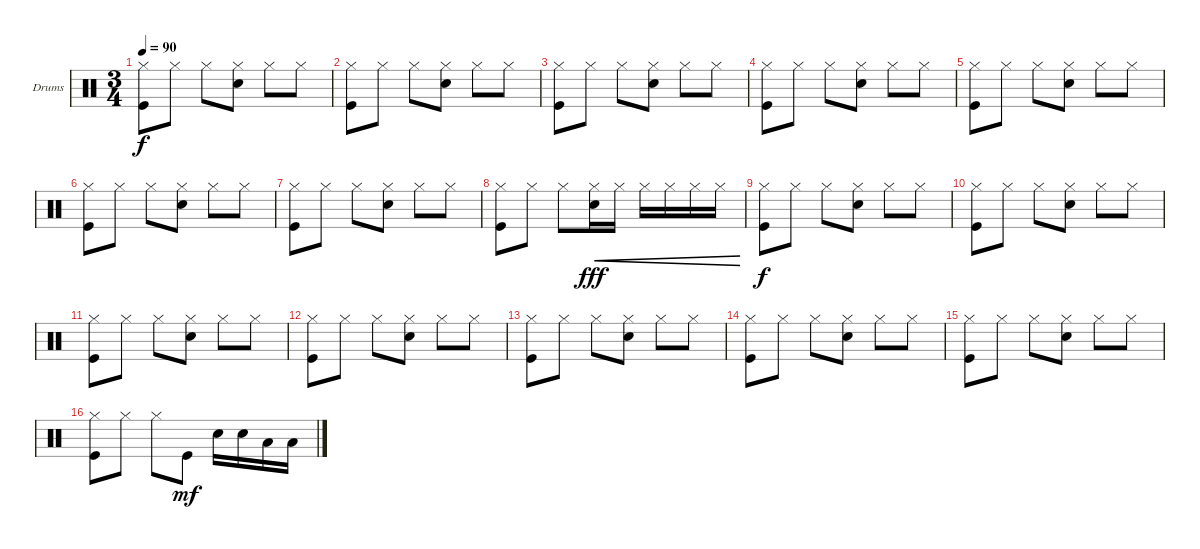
\defaultSystemsLayout 4
\bracketExtendMode groupsimilarinstruments
\firstSystemTrackNameOrientation horizontal
\otherSystemsTrackNameOrientation horizontal
\track ("Саня" "Drums") {instrument percussion}
\staff {score}
\articulation defaults
\ts (3 4)
\tempo 90
\clef neutral
\ks c
("Kick (hit)" "Hi-Hat (closed)").8{dy f} "Hi-Hat (closed)".8 "Hi-Hat (closed)".8 ("Snare (hit) 2" "Hi-Hat (closed)").8 "Hi-Hat (closed)".8 "Hi-Hat (closed)".8 |
("Kick (hit)" "Hi-Hat (closed)").8 "Hi-Hat (closed)".8 "Hi-Hat (closed)".8 ("Snare (hit) 2" "Hi-Hat (closed)").8 "Hi-Hat (closed)".8 "Hi-Hat (closed)".8 |
("Kick (hit)" "Hi-Hat (closed)").8 "Hi-Hat (closed)".8 "Hi-Hat (closed)".8 ("Snare (hit) 2" "Hi-Hat (closed)").8 "Hi-Hat (closed)".8 "Hi-Hat (closed)".8 |
("Kick (hit)" "Hi-Hat (closed)").8 "Hi-Hat (closed)".8 "Hi-Hat (closed)".8 ("Snare (hit) 2" "Hi-Hat (closed)").8 "Hi-Hat (closed)".8 "Hi-Hat (closed)".8 |
("Kick (hit)" "Hi-Hat (closed)").8 "Hi-Hat (closed)".8 "Hi-Hat (closed)".8 ("Snare (hit) 2" "Hi-Hat (closed)").8 "Hi-Hat (closed)".8 "Hi-Hat (closed)".8 |
("Kick (hit)" "Hi-Hat (closed)").8 "Hi-Hat (closed)".8 "Hi-Hat (closed)".8 ("Snare (hit) 2" "Hi-Hat (closed)").8 "Hi-Hat (closed)".8 "Hi-Hat (closed)".8 |
("Kick (hit)" "Hi-Hat (closed)").8 "Hi-Hat (closed)".8 "Hi-Hat (closed)".8 ("Snare (hit) 2" "Hi-Hat (closed)").8 "Hi-Hat (closed)".8 "Hi-Hat (closed)".8 |
("Kick (hit)" "Hi-Hat (closed)").8 "Hi-Hat (closed)".8 "Hi-Hat (closed)".8 ("Hi-Hat (closed)" "Snare (hit) 2").16{cre dy fff} "Hi-Hat (closed)".16{cre} "Hi-Hat (closed)".16{cre} "Hi-Hat (closed)".16{cre} "Hi-Hat (closed)".16{cre} "Hi-Hat (closed)".16{cre} |
("Kick (hit)" "Hi-Hat (closed)").8{dy f} "Hi-Hat (closed)".8 "Hi-Hat (closed)".8 ("Snare (hit) 2" "Hi-Hat (closed)").8 "Hi-Hat (closed)".8 "Hi-Hat (closed)".8 |
("Kick (hit)" "Hi-Hat (closed)").8 "Hi-Hat (closed)".8 "Hi-Hat (closed)".8 ("Snare (hit) 2" "Hi-Hat (closed)").8 "Hi-Hat (closed)".8 "Hi-Hat (closed)".8 |
("Kick (hit)" "Hi-Hat (closed)").8 "Hi-Hat (closed)".8 "Hi-Hat (closed)".8 ("Snare (hit) 2" "Hi-Hat (closed)").8 "Hi-Hat (closed)".8 "Hi-Hat (closed)".8 |
("Kick (hit)" "Hi-Hat (closed)").8 "Hi-Hat (closed)".8 "Hi-Hat (closed)".8 ("Snare (hit) 2" "Hi-Hat (closed)").8 "Hi-Hat (closed)".8 "Hi-Hat (closed)".8 |
("Kick (hit)" "Hi-Hat (closed)").8 "Hi-Hat (closed)".8 "Hi-Hat (closed)".8 ("Snare (hit) 2" "Hi-Hat (closed)").8 "Hi-Hat (closed)".8 "Hi-Hat (closed)".8 |
("Kick (hit)" "Hi-Hat (closed)").8 "Hi-Hat (closed)".8 "Hi-Hat (closed)".8 ("Snare (hit) 2" "Hi-Hat (closed)").8 "Hi-Hat (closed)".8 "Hi-Hat (closed)".8 |
("Kick (hit)" "Hi-Hat (closed)").8 "Hi-Hat (closed)".8 "Hi-Hat (closed)".8 ("Snare (hit) 2" "Hi-Hat (closed)").8 "Hi-Hat (closed)".8 "Hi-Hat (closed)".8 |
("Kick (hit)" "Hi-Hat (closed)").8 "Hi-Hat (closed)".8 "Hi-Hat (closed)".8 "Kick (hit)".8{dy mf} "Snare (hit) 2".16 "Snare (hit) 2".16 "Low Tom (hit)".16 "Low Tom (hit)".16
